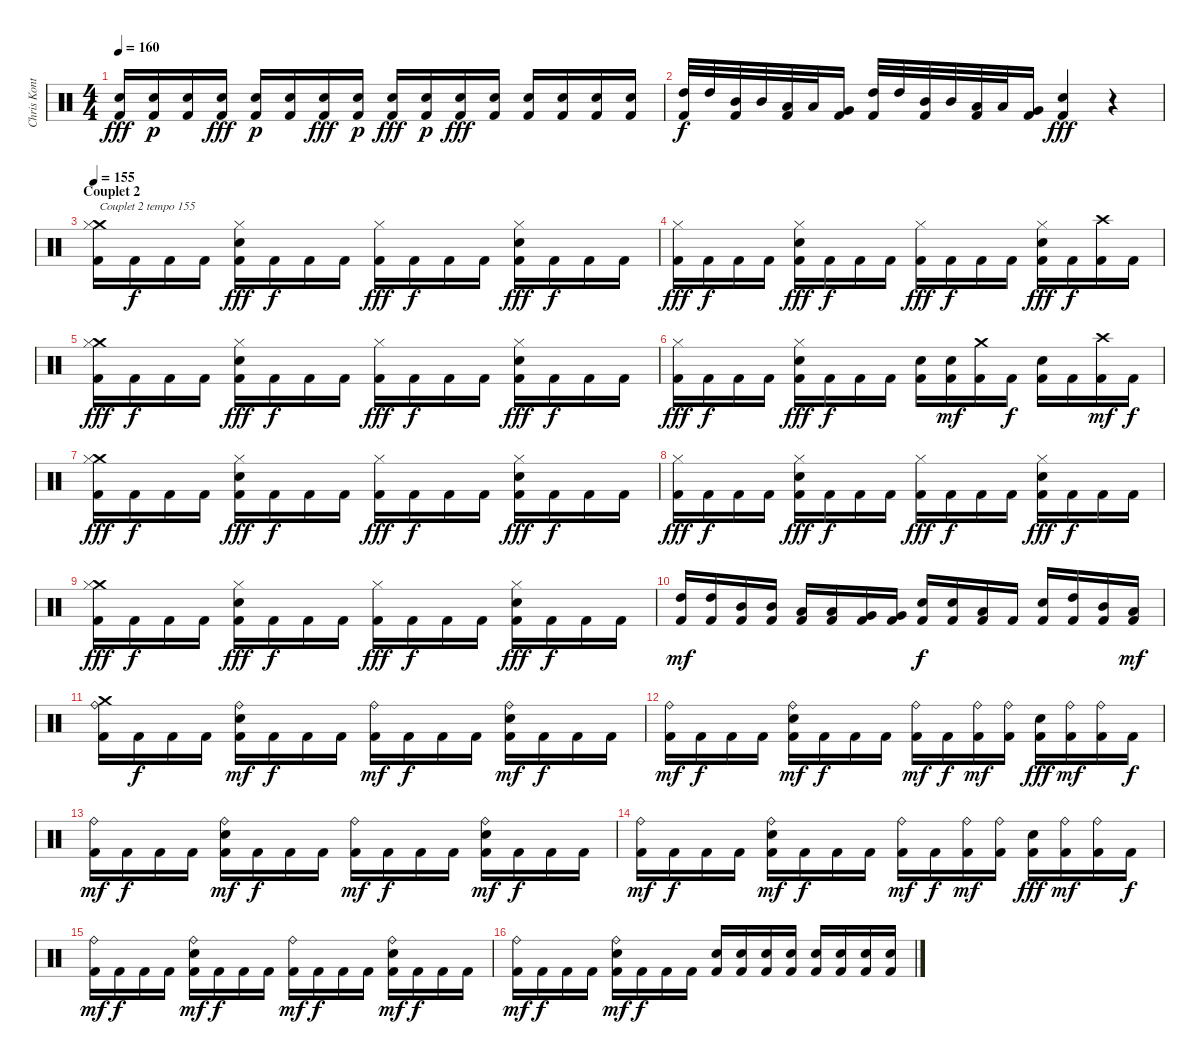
\track ("Chris Kontos" "Chris Kont") {instrument percussion}
\staff {score}
\articulation defaults
\ts (4 4)
\tempo 160
\clef neutral
\ks c
("Electric Snare (hit)" "Kick (hit) 2").16{dy fff} ("Electric Snare (hit)" "Kick (hit) 2").16{dy p} ("Electric Snare (hit)" "Kick (hit) 2").16 ("Electric Snare (hit)" "Kick (hit) 2").16{dy fff} ("Electric Snare (hit)" "Kick (hit) 2").16{dy p} ("Electric Snare (hit)" "Kick (hit) 2").16 ("Electric Snare (hit)" "Kick (hit) 2").16{dy fff} ("Electric Snare (hit)" "Kick (hit) 2").16{dy p} ("Electric Snare (hit)" "Kick (hit) 2").16{dy fff} ("Electric Snare (hit)" "Kick (hit) 2").16{dy p} ("Electric Snare (hit)" "Kick (hit) 2").16{dy fff} ("Electric Snare (hit)" "Kick (hit) 2").16 ("Electric Snare (hit)" "Kick (hit) 2").16 ("Electric Snare (hit)" "Kick (hit) 2").16 ("Electric Snare (hit)" "Kick (hit) 2").16 ("Electric Snare (hit)" "Kick (hit) 2").16 |
("High Tom (hit)" "Kick (hit) 2").32{dy f} "High Tom (hit)".32 ("Mid Tom (hit)" "Kick (hit) 2").32 "Mid Tom (hit)".32 ("Low Tom (hit)" "Kick (hit) 2").32 "Low Tom (hit)".32 ("Very Low Tom (hit)" "Kick (hit) 2").16 ("High Tom (hit)" "Kick (hit) 2").32 "High Tom (hit)".32 ("Mid Tom (hit)" "Kick (hit) 2").32 "Mid Tom (hit)".32 ("Low Tom (hit)" "Kick (hit) 2").32 "Low Tom (hit)".32 ("Very Low Tom (hit)" "Kick (hit) 2").16 ("Electric Snare (hit)" "Kick (hit) 2").4{dy fff} r.4 |
\section ("" "Couplet 2")
\tempo 155
("Crash medium (hit)" "Hi-Hat (closed)" "Kick (hit) 2").16{txt "Couplet 2 tempo 155"} "Kick (hit) 2".16{dy f} "Kick (hit) 2".16 "Kick (hit) 2".16 ("Electric Snare (hit)" "Hi-Hat (closed)" "Kick (hit) 2").16{dy fff} "Kick (hit) 2".16{dy f} "Kick (hit) 2".16 "Kick (hit) 2".16 ("Hi-Hat (closed)" "Kick (hit) 2").16{dy fff} "Kick (hit) 2".16{dy f} "Kick (hit) 2".16 "Kick (hit) 2".16 ("Electric Snare (hit)" "Hi-Hat (closed)" "Kick (hit) 2").16{dy fff} "Kick (hit) 2".16{dy f} "Kick (hit) 2".16 "Kick (hit) 2".16 |
("Hi-Hat (closed)" "Kick (hit) 2").16{dy fff} "Kick (hit) 2".16{dy f} "Kick (hit) 2".16 "Kick (hit) 2".16 ("Electric Snare (hit)" "Hi-Hat (closed)" "Kick (hit) 2").16{dy fff} "Kick (hit) 2".16{dy f} "Kick (hit) 2".16 "Kick (hit) 2".16 ("Hi-Hat (closed)" "Kick (hit) 2").16{dy fff} "Kick (hit) 2".16{dy f} "Kick (hit) 2".16 "Kick (hit) 2".16 ("Electric Snare (hit)" "Hi-Hat (closed)" "Kick (hit) 2").16{dy fff} "Kick (hit) 2".16{dy f} ("Crash high (hit)" "Kick (hit) 2").16 "Kick (hit) 2".16 |
("Crash medium (hit)" "Hi-Hat (closed)" "Kick (hit) 2").16{dy fff} "Kick (hit) 2".16{dy f} "Kick (hit) 2".16 "Kick (hit) 2".16 ("Electric Snare (hit)" "Hi-Hat (closed)" "Kick (hit) 2").16{dy fff} "Kick (hit) 2".16{dy f} "Kick (hit) 2".16 "Kick (hit) 2".16 ("Hi-Hat (closed)" "Kick (hit) 2").16{dy fff} "Kick (hit) 2".16{dy f} "Kick (hit) 2".16 "Kick (hit) 2".16 ("Electric Snare (hit)" "Hi-Hat (closed)" "Kick (hit) 2").16{dy fff} "Kick (hit) 2".16{dy f} "Kick (hit) 2".16 "Kick (hit) 2".16 |
("Hi-Hat (closed)" "Kick (hit) 2").16{dy fff} "Kick (hit) 2".16{dy f} "Kick (hit) 2".16 "Kick (hit) 2".16 ("Electric Snare (hit)" "Hi-Hat (closed)" "Kick (hit) 2").16{dy fff} "Kick (hit) 2".16{dy f} "Kick (hit) 2".16 "Kick (hit) 2".16 ("Electric Snare (hit)" "Kick (hit) 2").16 ("Electric Snare (hit)" "Kick (hit) 2").16{dy mf} ("Crash medium (hit)" "Kick (hit) 2").16 "Kick (hit) 2".16{dy f} ("Electric Snare (hit)" "Kick (hit) 2").16 "Kick (hit) 2".16 ("Crash high (hit)" "Kick (hit) 2").16{dy mf} "Kick (hit) 2".16{dy f} |
("Crash medium (hit)" "Hi-Hat (closed)" "Kick (hit) 2").16{dy fff} "Kick (hit) 2".16{dy f} "Kick (hit) 2".16 "Kick (hit) 2".16 ("Electric Snare (hit)" "Hi-Hat (closed)" "Kick (hit) 2").16{dy fff} "Kick (hit) 2".16{dy f} "Kick (hit) 2".16 "Kick (hit) 2".16 ("Hi-Hat (closed)" "Kick (hit) 2").16{dy fff} "Kick (hit) 2".16{dy f} "Kick (hit) 2".16 "Kick (hit) 2".16 ("Electric Snare (hit)" "Hi-Hat (closed)" "Kick (hit) 2").16{dy fff} "Kick (hit) 2".16{dy f} "Kick (hit) 2".16 "Kick (hit) 2".16 |
("Hi-Hat (closed)" "Kick (hit) 2").16{dy fff} "Kick (hit) 2".16{dy f} "Kick (hit) 2".16 "Kick (hit) 2".16 ("Electric Snare (hit)" "Hi-Hat (closed)" "Kick (hit) 2").16{dy fff} "Kick (hit) 2".16{dy f} "Kick (hit) 2".16 "Kick (hit) 2".16 ("Hi-Hat (closed)" "Kick (hit) 2").16{dy fff} "Kick (hit) 2".16{dy f} "Kick (hit) 2".16 "Kick (hit) 2".16 ("Electric Snare (hit)" "Hi-Hat (closed)" "Kick (hit) 2").16{dy fff} "Kick (hit) 2".16{dy f} "Kick (hit) 2".16 "Kick (hit) 2".16 |
("Crash medium (hit)" "Hi-Hat (closed)" "Kick (hit) 2").16{dy fff} "Kick (hit) 2".16{dy f} "Kick (hit) 2".16 "Kick (hit) 2".16 ("Electric Snare (hit)" "Hi-Hat (closed)" "Kick (hit) 2").16{dy fff} "Kick (hit) 2".16{dy f} "Kick (hit) 2".16 "Kick (hit) 2".16 ("Hi-Hat (closed)" "Kick (hit) 2").16{dy fff} "Kick (hit) 2".16{dy f} "Kick (hit) 2".16 "Kick (hit) 2".16 ("Electric Snare (hit)" "Hi-Hat (closed)" "Kick (hit) 2").16{dy fff} "Kick (hit) 2".16{dy f} "Kick (hit) 2".16 "Kick (hit) 2".16 |
("High Tom (hit)" "Kick (hit) 2").16{dy mf} ("High Tom (hit)" "Kick (hit) 2").16 ("Mid Tom (hit)" "Kick (hit) 2").16 ("Mid Tom (hit)" "Kick (hit) 2").16 ("Low Tom (hit)" "Kick (hit) 2").16 ("Low Tom (hit)" "Kick (hit) 2").16 ("Very Low Tom (hit)" "Kick (hit) 2").16 ("Very Low Tom (hit)" "Kick (hit) 2").16 ("Electric Snare (hit)" "Kick (hit) 2").16{dy f} ("Electric Snare (hit)" "Kick (hit) 2").16 ("Low Tom (hit)" "Kick (hit) 2").16 "Kick (hit) 2".16 ("Electric Snare (hit)" "Kick (hit) 2").16 ("High Tom (hit)" "Kick (hit) 2").16 ("Mid Tom (hit)" "Kick (hit) 2").16 ("Low Tom (hit)" "Kick (hit) 2").16{dy mf} |
("Crash medium (hit)" "Ride (bell)" "Kick (hit) 2").16 "Kick (hit) 2".16{dy f} "Kick (hit) 2".16 "Kick (hit) 2".16 ("Electric Snare (hit)" "Ride (bell)" "Kick (hit) 2").16{dy mf} "Kick (hit) 2".16{dy f} "Kick (hit) 2".16 "Kick (hit) 2".16 ("Ride (bell)" "Kick (hit) 2").16{dy mf} "Kick (hit) 2".16{dy f} "Kick (hit) 2".16 "Kick (hit) 2".16 ("Electric Snare (hit)" "Ride (bell)" "Kick (hit) 2").16{dy mf} "Kick (hit) 2".16{dy f} "Kick (hit) 2".16 "Kick (hit) 2".16 |
("Ride (bell)" "Kick (hit) 2").16{dy mf} "Kick (hit) 2".16{dy f} "Kick (hit) 2".16 "Kick (hit) 2".16 ("Electric Snare (hit)" "Ride (bell)" "Kick (hit) 2").16{dy mf} "Kick (hit) 2".16{dy f} "Kick (hit) 2".16 "Kick (hit) 2".16 ("Ride (bell)" "Kick (hit) 2").16{dy mf} "Kick (hit) 2".16{dy f} ("Ride (bell)" "Kick (hit) 2").16{dy mf} ("Ride (bell)" "Kick (hit) 2").16 ("Electric Snare (hit)" "Kick (hit) 2").16{dy fff} ("Ride (bell)" "Kick (hit) 2").16{dy mf} ("Ride (bell)" "Kick (hit) 2").16 "Kick (hit) 2".16{dy f} |
("Ride (bell)" "Kick (hit) 2").16{dy mf} "Kick (hit) 2".16{dy f} "Kick (hit) 2".16 "Kick (hit) 2".16 ("Electric Snare (hit)" "Ride (bell)" "Kick (hit) 2").16{dy mf} "Kick (hit) 2".16{dy f} "Kick (hit) 2".16 "Kick (hit) 2".16 ("Ride (bell)" "Kick (hit) 2").16{dy mf} "Kick (hit) 2".16{dy f} "Kick (hit) 2".16 "Kick (hit) 2".16 ("Electric Snare (hit)" "Ride (bell)" "Kick (hit) 2").16{dy mf} "Kick (hit) 2".16{dy f} "Kick (hit) 2".16 "Kick (hit) 2".16 |
("Ride (bell)" "Kick (hit) 2").16{dy mf} "Kick (hit) 2".16{dy f} "Kick (hit) 2".16 "Kick (hit) 2".16 ("Electric Snare (hit)" "Ride (bell)" "Kick (hit) 2").16{dy mf} "Kick (hit) 2".16{dy f} "Kick (hit) 2".16 "Kick (hit) 2".16 ("Ride (bell)" "Kick (hit) 2").16{dy mf} "Kick (hit) 2".16{dy f} ("Ride (bell)" "Kick (hit) 2").16{dy mf} ("Ride (bell)" "Kick (hit) 2").16 ("Electric Snare (hit)" "Kick (hit) 2").16{dy fff} ("Ride (bell)" "Kick (hit) 2").16{dy mf} ("Ride (bell)" "Kick (hit) 2").16 "Kick (hit) 2".16{dy f} |
("Ride (bell)" "Kick (hit) 2").16{dy mf} "Kick (hit) 2".16{dy f} "Kick (hit) 2".16 "Kick (hit) 2".16 ("Electric Snare (hit)" "Ride (bell)" "Kick (hit) 2").16{dy mf} "Kick (hit) 2".16{dy f} "Kick (hit) 2".16 "Kick (hit) 2".16 ("Ride (bell)" "Kick (hit) 2").16{dy mf} "Kick (hit) 2".16{dy f} "Kick (hit) 2".16 "Kick (hit) 2".16 ("Electric Snare (hit)" "Ride (bell)" "Kick (hit) 2").16{dy mf} "Kick (hit) 2".16{dy f} "Kick (hit) 2".16 "Kick (hit) 2".16 |
("Ride (bell)" "Kick (hit) 2").16{dy mf} "Kick (hit) 2".16{dy f} "Kick (hit) 2".16 "Kick (hit) 2".16 ("Electric Snare (hit)" "Ride (bell)" "Kick (hit) 2").16{dy mf} "Kick (hit) 2".16{dy f} "Kick (hit) 2".16 "Kick (hit) 2".16 ("Electric Snare (hit)" "Kick (hit) 2").16 ("Electric Snare (hit)" "Kick (hit) 2").16 ("Electric Snare (hit)" "Kick (hit) 2").16 ("Electric Snare (hit)" "Kick (hit) 2").16 ("Electric Snare (hit)" "Kick (hit) 2").16 ("Electric Snare (hit)" "Kick (hit) 2").16 ("Electric Snare (hit)" "Kick (hit) 2").16 ("Electric Snare (hit)" "Kick (hit) 2").16
